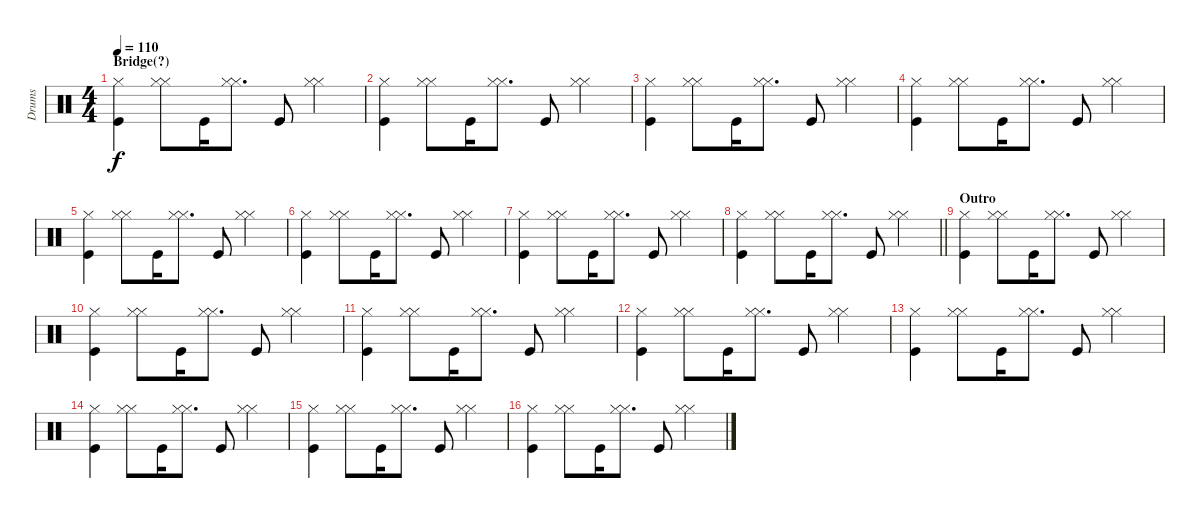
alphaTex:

\track ("Drums" "Drums") {instrument percussion}
\staff {score}
\articulation defaults
\ts (4 4)
\section ("" "Bridge(?)")
\tempo 110
\clef neutral
\ks c
("Hi-Hat (closed)" "Kick (hit)").4{dy f} ("Hi-Hat (closed)" "Hi-Hat (closed)").8 "Kick (hit)".16 ("Hi-Hat (closed)" "Hi-Hat (closed)").8{d} "Kick (hit)".8 ("Hi-Hat (closed)" "Hi-Hat (closed)").4 |
("Hi-Hat (closed)" "Kick (hit)").4 ("Hi-Hat (closed)" "Hi-Hat (closed)").8 "Kick (hit)".16 ("Hi-Hat (closed)" "Hi-Hat (closed)").8{d} "Kick (hit)".8 ("Hi-Hat (closed)" "Hi-Hat (closed)").4 |
("Hi-Hat (closed)" "Kick (hit)").4 ("Hi-Hat (closed)" "Hi-Hat (closed)").8 "Kick (hit)".16 ("Hi-Hat (closed)" "Hi-Hat (closed)").8{d} "Kick (hit)".8 ("Hi-Hat (closed)" "Hi-Hat (closed)").4 |
("Hi-Hat (closed)" "Kick (hit)").4 ("Hi-Hat (closed)" "Hi-Hat (closed)").8 "Kick (hit)".16 ("Hi-Hat (closed)" "Hi-Hat (closed)").8{d} "Kick (hit)".8 ("Hi-Hat (closed)" "Hi-Hat (closed)").4 |
("Hi-Hat (closed)" "Kick (hit)").4 ("Hi-Hat (closed)" "Hi-Hat (closed)").8 "Kick (hit)".16 ("Hi-Hat (closed)" "Hi-Hat (closed)").8{d} "Kick (hit)".8 ("Hi-Hat (closed)" "Hi-Hat (closed)").4 |
("Hi-Hat (closed)" "Kick (hit)").4 ("Hi-Hat (closed)" "Hi-Hat (closed)").8 "Kick (hit)".16 ("Hi-Hat (closed)" "Hi-Hat (closed)").8{d} "Kick (hit)".8 ("Hi-Hat (closed)" "Hi-Hat (closed)").4 |
("Hi-Hat (closed)" "Kick (hit)").4 ("Hi-Hat (closed)" "Hi-Hat (closed)").8 "Kick (hit)".16 ("Hi-Hat (closed)" "Hi-Hat (closed)").8{d} "Kick (hit)".8 ("Hi-Hat (closed)" "Hi-Hat (closed)").4 |
\barLineRight lightlight
("Hi-Hat (closed)" "Kick (hit)").4 ("Hi-Hat (closed)" "Hi-Hat (closed)").8 "Kick (hit)".16 ("Hi-Hat (closed)" "Hi-Hat (closed)").8{d} "Kick (hit)".8 ("Hi-Hat (closed)" "Hi-Hat (closed)").4 |
\section ("" "Outro")
("Hi-Hat (closed)" "Kick (hit)").4 ("Hi-Hat (closed)" "Hi-Hat (closed)").8 "Kick (hit)".16 ("Hi-Hat (closed)" "Hi-Hat (closed)").8{d} "Kick (hit)".8 ("Hi-Hat (closed)" "Hi-Hat (closed)").4 |
("Hi-Hat (closed)" "Kick (hit)").4 ("Hi-Hat (closed)" "Hi-Hat (closed)").8 "Kick (hit)".16 ("Hi-Hat (closed)" "Hi-Hat (closed)").8{d} "Kick (hit)".8 ("Hi-Hat (closed)" "Hi-Hat (closed)").4 |
("Hi-Hat (closed)" "Kick (hit)").4 ("Hi-Hat (closed)" "Hi-Hat (closed)").8 "Kick (hit)".16 ("Hi-Hat (closed)" "Hi-Hat (closed)").8{d} "Kick (hit)".8 ("Hi-Hat (closed)" "Hi-Hat (closed)").4 |
("Hi-Hat (closed)" "Kick (hit)").4 ("Hi-Hat (closed)" "Hi-Hat (closed)").8 "Kick (hit)".16 ("Hi-Hat (closed)" "Hi-Hat (closed)").8{d} "Kick (hit)".8 ("Hi-Hat (closed)" "Hi-Hat (closed)").4 |
("Hi-Hat (closed)" "Kick (hit)").4 ("Hi-Hat (closed)" "Hi-Hat (closed)").8 "Kick (hit)".16 ("Hi-Hat (closed)" "Hi-Hat (closed)").8{d} "Kick (hit)".8 ("Hi-Hat (closed)" "Hi-Hat (closed)").4 |
("Hi-Hat (closed)" "Kick (hit)").4 ("Hi-Hat (closed)" "Hi-Hat (closed)").8 "Kick (hit)".16 ("Hi-Hat (closed)" "Hi-Hat (closed)").8{d} "Kick (hit)".8 ("Hi-Hat (closed)" "Hi-Hat (closed)").4 |
("Hi-Hat (closed)" "Kick (hit)").4 ("Hi-Hat (closed)" "Hi-Hat (closed)").8 "Kick (hit)".16 ("Hi-Hat (closed)" "Hi-Hat (closed)").8{d} "Kick (hit)".8 ("Hi-Hat (closed)" "Hi-Hat (closed)").4 |
("Hi-Hat (closed)" "Kick (hit)").4 ("Hi-Hat (closed)" "Hi-Hat (closed)").8 "Kick (hit)".16 ("Hi-Hat (closed)" "Hi-Hat (closed)").8{d} "Kick (hit)".8 ("Hi-Hat (closed)" "Hi-Hat (closed)").4
